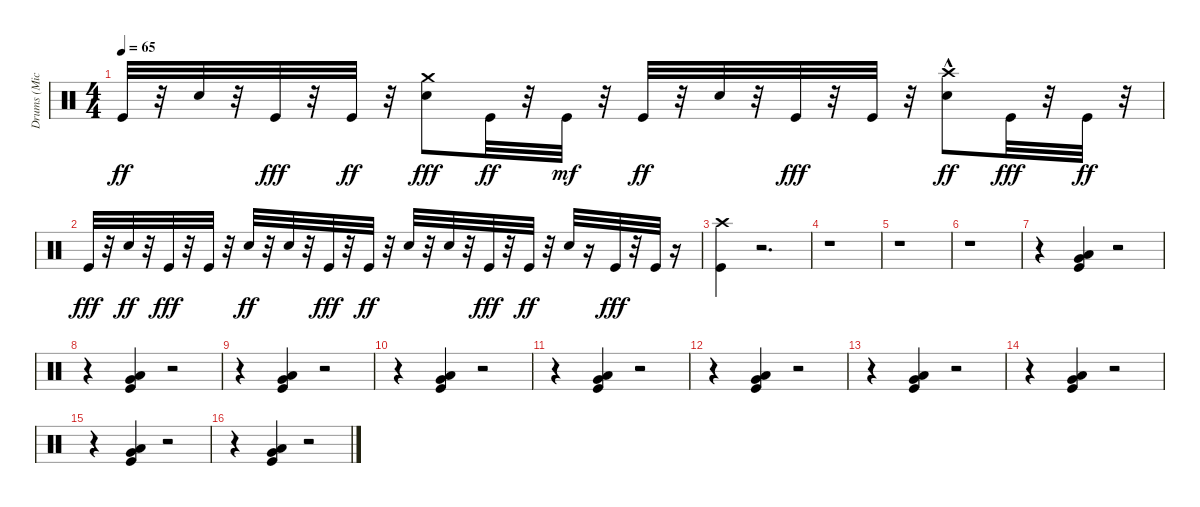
\track ("Drums (Michael Giles)" "Drums (Mic") {instrument percussion}
\staff {score}
\articulation defaults
\ts (4 4)
\tempo 65
\clef neutral
\ks c "Kick (hit)".32{dy ff}
r.32 "Snare (hit) 2".32 r.32 "Kick (hit)".32{dy fff} r.32 "Kick (hit)".32{dy ff} r.32 ("Snare (hit) 2" "Crash medium (hit)").8{dy fff} "Kick (hit)".32{dy ff} r.32 "Kick (hit)".32{dy mf} r.32 "Kick (hit)".32{dy ff} r.32 "Snare (hit) 2".32 r.32 "Kick (hit)".32{dy fff} r.32 "Kick (hit)".32 r.32 ("Snare (hit) 2" "Crash high (hit)"{hac}).8{dy ff} "Kick (hit)".32{dy fff} r.32 "Kick (hit)".32{dy ff} r.32 |
"Kick (hit)".32{dy fff} r.32 "Snare (hit) 2".32{dy ff} r.32 "Kick (hit)".32{dy fff} r.32 "Kick (hit)".32 r.32 "Snare (hit) 2".32{dy ff} r.32 "Snare (hit) 2".32 r.32 "Kick (hit)".32{dy fff} r.32 "Kick (hit)".32{dy ff} r.32 "Snare (hit) 2".32 r.32 "Snare (hit) 2".32 r.32 "Kick (hit)".32{dy fff} r.32 "Kick (hit)".32{dy ff} r.32 "Snare (hit) 2".32 r.16 "Kick (hit)".32{dy fff} r.32 "Kick (hit)".32 r.16 |
("Crash high (hit)" "Kick (hit)").4 r.2{d} |
r.1 |
r.1 |
r.1 |
r.4 ("Kick (hit)" "Very Low Tom (hit)" "Low Tom (hit)").4 r.2 |
r.4 ("Kick (hit)" "Very Low Tom (hit)" "Low Tom (hit)").4 r.2 |
r.4 ("Kick (hit)" "Very Low Tom (hit)" "Low Tom (hit)").4 r.2 |
r.4 ("Kick (hit)" "Very Low Tom (hit)" "Low Tom (hit)").4 r.2 |
r.4 ("Kick (hit)" "Very Low Tom (hit)" "Low Tom (hit)").4 r.2 |
r.4 ("Kick (hit)" "Very Low Tom (hit)" "Low Tom (hit)").4 r.2 |
r.4 ("Kick (hit)" "Very Low Tom (hit)" "Low Tom (hit)").4 r.2 |
r.4 ("Kick (hit)" "Very Low Tom (hit)" "Low Tom (hit)").4 r.2 |
r.4 ("Kick (hit)" "Very Low Tom (hit)" "Low Tom (hit)").4 r.2 |
r.4 ("Kick (hit)" "Very Low Tom (hit)" "Low Tom (hit)").4 r.2
